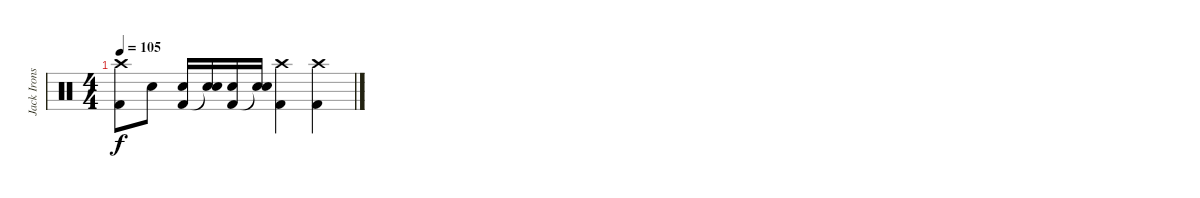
\track ("Jack Irons" "Jack Irons") {instrument percussion}
\staff {score}
\articulation defaults
\ts (4 4)
\tempo 105
\clef neutral
\ks c
("Crash high (hit)" "Kick (hit) 2").8{dy f} "Snare (hit) 2".8 ("Snare (hit) 2" "Kick (hit) 2").16 ("Snare (hit) 2" "Snare (hit)"{t}).16 ("Snare (hit) 2" "Kick (hit) 2").16 ("Snare (hit) 2" "Snare (hit)"{t}).16 ("Crash high (hit)" "Kick (hit) 2").4 ("Crash high (hit)" "Kick (hit) 2").4
